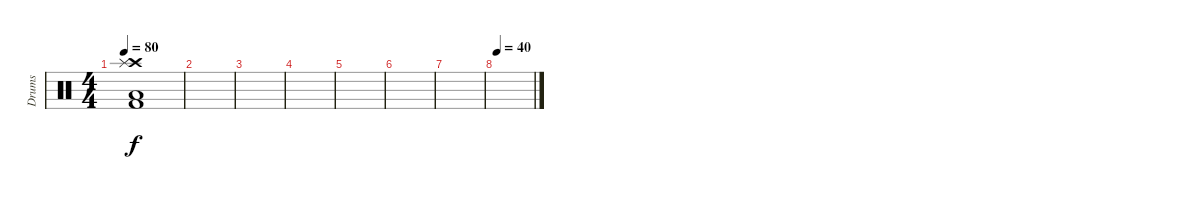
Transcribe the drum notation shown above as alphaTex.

\track ("Drums" "Drums") {instrument percussion}
\staff {score}
\articulation defaults
\ts (4 4)
\tempo 80
\clef neutral
\ks c
("Crash high (hit)" "Splash (hit)" "Low Floor Tom (hit)" "Kick (hit) 2").1{dy f} |
|
|
|
|
|
|
\tempo 40
